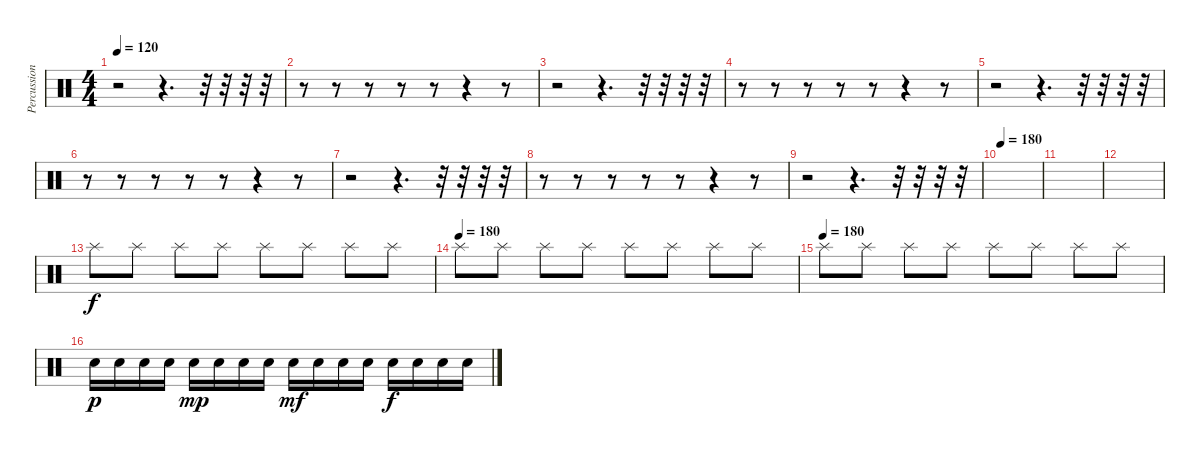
\track ("Percussion 2" "Percussion") {instrument percussion}
\staff {score}
\articulation defaults
\ts (4 4)
\tempo 120
\clef neutral
\ks c
r.2{dy f} r.4{d} r.32 r.32 r.32 r.32 |
r.8 r.8 r.8 r.8 r.8 r.4 r.8 |
r.2 r.4{d} r.32 r.32 r.32 r.32 |
r.8 r.8 r.8 r.8 r.8 r.4 r.8 |
r.2 r.4{d} r.32 r.32 r.32 r.32 |
r.8 r.8 r.8 r.8 r.8 r.4 r.8 |
r.2 r.4{d} r.32 r.32 r.32 r.32 |
r.8 r.8 r.8 r.8 r.8 r.4 r.8 |
r.2 r.4{d} r.32 r.32 r.32 r.32 |
\tempo 180
|
|
|
"Splash (hit)".8 "Splash (hit)".8 "Splash (hit)".8 "Splash (hit)".8 "Splash (hit)".8 "Splash (hit)".8 "Splash (hit)".8 "Splash (hit)".8 |
\tempo (180)
"Splash (hit)".8 "Splash (hit)".8 "Splash (hit)".8 "Splash (hit)".8 "Splash (hit)".8 "Splash (hit)".8 "Splash (hit)".8 "Splash (hit)".8 |
\tempo (180)
"Splash (hit)".8 "Splash (hit)".8 "Splash (hit)".8 "Splash (hit)".8 "Splash (hit)".8 "Splash (hit)".8 "Splash (hit)".8 "Splash (hit)".8 |
"Snare (hit) 2".16{dy p} "Snare (hit) 2".16 "Snare (hit) 2".16 "Snare (hit) 2".16 "Snare (hit) 2".16{dy mp} "Snare (hit) 2".16 "Snare (hit) 2".16 "Snare (hit) 2".16 "Snare (hit) 2".16{dy mf} "Snare (hit) 2".16 "Snare (hit) 2".16 "Snare (hit) 2".16 "Snare (hit) 2".16{dy f} "Snare (hit) 2".16 "Snare (hit) 2".16 "Snare (hit) 2".16
